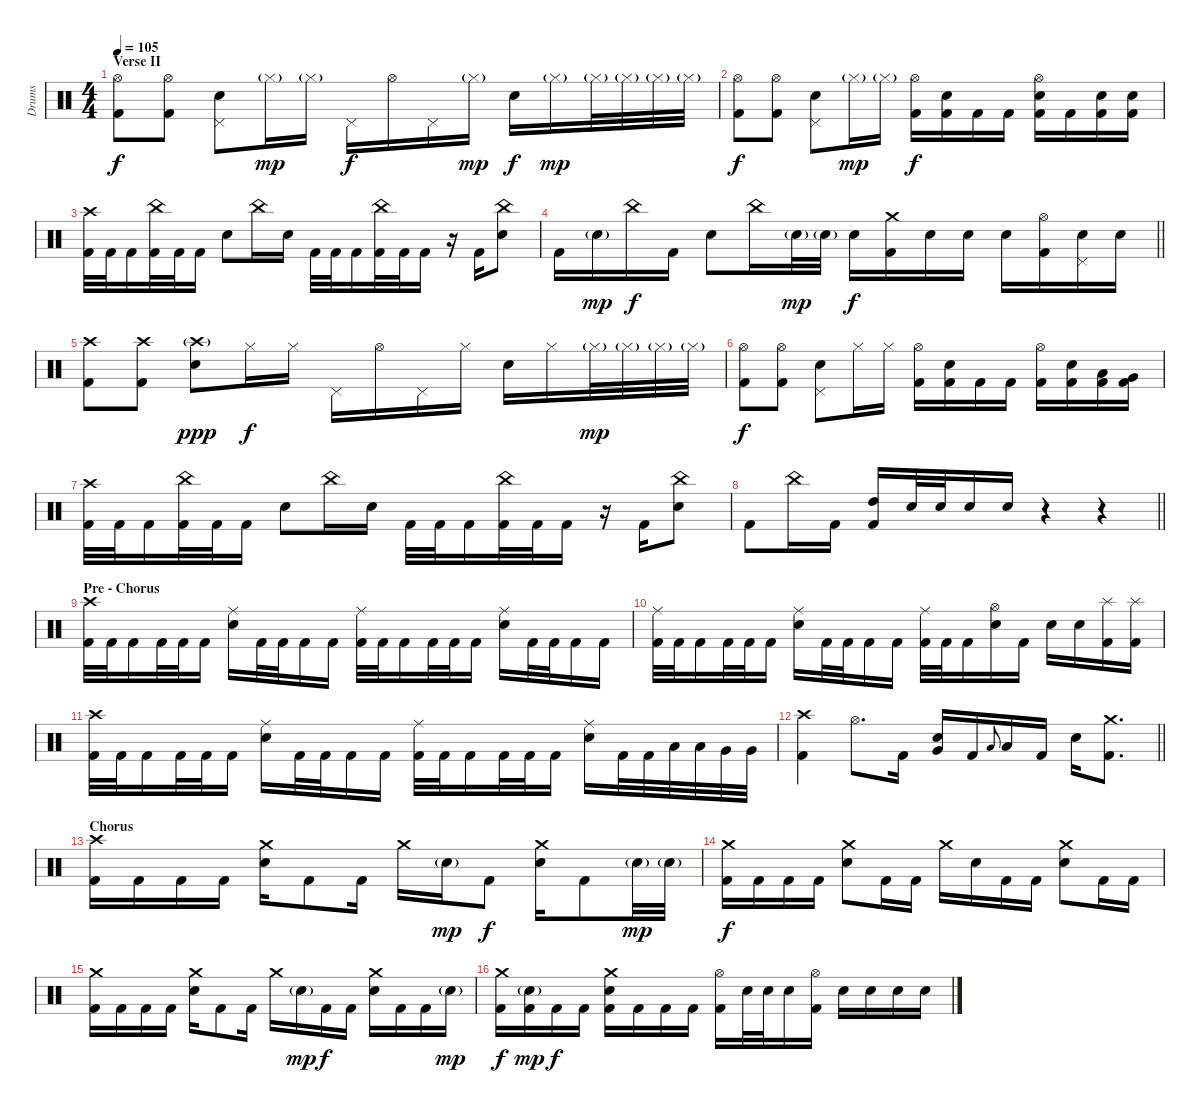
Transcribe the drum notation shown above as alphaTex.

\track ("Drums" "Drums") {instrument percussion}
\staff {score}
\articulation defaults
\ts (4 4)
\section ("" "Verse II")
\tempo 105
\clef neutral
\ks c
("Hi-Hat (open)" "Kick (hit) 2").8{dy f} ("Hi-Hat (open)" "Kick (hit) 2").8 ("Pedal Hi-Hat (hit)" "Electric Snare (hit)").8 "Hi-Hat (closed)"{g}.16{dy mp} "Hi-Hat (closed)"{g}.16 "Pedal Hi-Hat (hit)".16{dy f} "Hi-Hat (open)".16 "Pedal Hi-Hat (hit)".16 "Hi-Hat (closed)"{g}.16{dy mp} "Electric Snare (hit)".16{dy f} "Hi-Hat (closed)"{g}.16{dy mp} "Hi-Hat (closed)"{g}.32 "Hi-Hat (closed)"{g}.32 "Hi-Hat (closed)"{g}.32 "Hi-Hat (closed)"{g}.32 |
("Hi-Hat (open)" "Kick (hit) 2").8{dy f} ("Hi-Hat (open)" "Kick (hit) 2").8 ("Pedal Hi-Hat (hit)" "Electric Snare (hit)").8 "Hi-Hat (closed)"{g}.16{dy mp} "Hi-Hat (closed)"{g}.16 ("Hi-Hat (open)" "Kick (hit) 2").16{dy f} ("Electric Snare (hit)" "Kick (hit) 2").16 "Kick (hit) 2".16 "Kick (hit) 2".16 ("Hi-Hat (open)" "Electric Snare (hit)" "Kick (hit) 2").16 "Kick (hit) 2".16 ("Electric Snare (hit)" "Kick (hit) 2").16 ("Electric Snare (hit)" "Kick (hit) 2").16 |
("Crash high (hit)" "Kick (hit) 2").32 "Kick (hit) 2".32 "Kick (hit) 2".16 ("China (hit)" "Kick (hit) 2").32 "Kick (hit) 2".32 "Kick (hit) 2".16 "Electric Snare (hit)".8 "China (hit)".16 "Electric Snare (hit)".16 "Kick (hit) 2".32 "Kick (hit) 2".32 "Kick (hit) 2".16 ("China (hit)" "Kick (hit) 2").32 "Kick (hit) 2".32 "Kick (hit) 2".16 r.16 "Kick (hit) 2".16 ("China (hit)" "Electric Snare (hit)").8 |
\barLineRight lightlight "Kick (hit) 2".16 "Electric Snare (hit)"{g}.16{dy mp} "China (hit)".16{dy f} "Kick (hit) 2".16 "Electric Snare (hit)".8 "China (hit)".16 "Electric Snare (hit)"{g}.32{dy mp} "Electric Snare (hit)"{g}.32 "Electric Snare (hit)".16{dy f}
("Crash medium (hit)" "Kick (hit) 2").16 "Electric Snare (hit)".16 "Electric Snare (hit)".16 "Electric Snare (hit)".16 ("Hi-Hat (open)" "Kick (hit) 2").16 ("Pedal Hi-Hat (hit)" "Electric Snare (hit)").16 "Electric Snare (hit)".16 |
("Crash high (hit)" "Kick (hit) 2").8 ("Crash high (hit)" "Kick (hit) 2").8 ("Crash high (hit)"{g} "Electric Snare (hit)").8{dy ppp} "Hi-Hat (closed)".16{dy f} "Hi-Hat (closed)".16 "Pedal Hi-Hat (hit)".16 "Hi-Hat (open)".16 "Pedal Hi-Hat (hit)".16 "Hi-Hat (closed)".16 "Electric Snare (hit)".16 "Hi-Hat (closed)".16 "Hi-Hat (closed)"{g}.32{dy mp} "Hi-Hat (closed)"{g}.32 "Hi-Hat (closed)"{g}.32 "Hi-Hat (closed)"{g}.32 |
("Hi-Hat (open)" "Kick (hit) 2").8{dy f} ("Hi-Hat (open)" "Kick (hit) 2").8 ("Pedal Hi-Hat (hit)" "Electric Snare (hit)").8 "Hi-Hat (closed)".16 "Hi-Hat (closed)".16 ("Hi-Hat (open)" "Kick (hit) 2").16 ("Electric Snare (hit)" "Kick (hit) 2").16 "Kick (hit) 2".16 "Kick (hit) 2".16 ("Hi-Hat (open)" "Kick (hit) 2").16 ("Electric Snare (hit)" "Kick (hit) 2").16 ("Low Tom (hit)" "Kick (hit) 2").16 ("Very Low Tom (hit)" "Kick (hit) 2").16 |
("Crash high (hit)" "Kick (hit) 2").32 "Kick (hit) 2".32 "Kick (hit) 2".16 ("China (hit)" "Kick (hit) 2").32 "Kick (hit) 2".32 "Kick (hit) 2".16 "Electric Snare (hit)".8 "China (hit)".16 "Electric Snare (hit)".16 "Kick (hit) 2".32 "Kick (hit) 2".32 "Kick (hit) 2".16 ("China (hit)" "Kick (hit) 2").32 "Kick (hit) 2".32 "Kick (hit) 2".16 r.16 "Kick (hit) 2".16 ("China (hit)" "Electric Snare (hit)").8 |
\barLineRight lightlight "Kick (hit) 2".8 "China (hit)".16 "Kick (hit) 2".16
("High Tom (hit)" "Kick (hit) 2").16 "Electric Snare (hit)".32 "Electric Snare (hit)".32 "Electric Snare (hit)".16 "Electric Snare (hit)".16 r.4 r.4 |
\section ("" "Pre - Chorus")
("Crash high (hit)" "Kick (hit) 2").32 "Kick (hit) 2".32 "Kick (hit) 2".16 "Kick (hit) 2".32 "Kick (hit) 2".32 "Kick (hit) 2".16 ("Ride (middle)" "Electric Snare (hit)").16 "Kick (hit) 2".32 "Kick (hit) 2".32 "Kick (hit) 2".16 "Kick (hit) 2".16 ("Ride (middle)" "Kick (hit) 2").32 "Kick (hit) 2".32 "Kick (hit) 2".16 "Kick (hit) 2".32 "Kick (hit) 2".32 "Kick (hit) 2".16 ("Ride (middle)" "Electric Snare (hit)").16 "Kick (hit) 2".32 "Kick (hit) 2".32 "Kick (hit) 2".16 "Kick (hit) 2".16 |
("Ride (middle)" "Kick (hit) 2").32 "Kick (hit) 2".32 "Kick (hit) 2".16 "Kick (hit) 2".32 "Kick (hit) 2".32 "Kick (hit) 2".16 ("Ride (middle)" "Electric Snare (hit)").16 "Kick (hit) 2".32 "Kick (hit) 2".32 "Kick (hit) 2".16 "Kick (hit) 2".16 ("Ride (middle)" "Kick (hit) 2").32 "Kick (hit) 2".32 "Kick (hit) 2".16 ("Hi-Hat (open)" "Electric Snare (hit)").16 "Kick (hit) 2".16 "Electric Snare (hit)".16 "Electric Snare (hit)".16 ("Splash (hit)" "Kick (hit) 2").16 ("Splash (hit)" "Kick (hit) 2").16 |
("Crash high (hit)" "Kick (hit) 2").32 "Kick (hit) 2".32 "Kick (hit) 2".16 "Kick (hit) 2".32 "Kick (hit) 2".32 "Kick (hit) 2".16 ("Ride (middle)" "Electric Snare (hit)").16 "Kick (hit) 2".32 "Kick (hit) 2".32 "Kick (hit) 2".16 "Kick (hit) 2".16 ("Ride (middle)" "Kick (hit) 2").32 "Kick (hit) 2".32 "Kick (hit) 2".16 "Kick (hit) 2".32 "Kick (hit) 2".32 "Kick (hit) 2".16 ("Ride (middle)" "Electric Snare (hit)").16 "Kick (hit) 2".32 "Kick (hit) 2".32 "Low Tom (hit)".32 "Low Tom (hit)".32 "Very Low Tom (hit)".32 "Very Low Tom (hit)".32 |
\barLineRight lightlight
("Crash high (hit)" "Kick (hit) 2").4 "Hi-Hat (open)".8{d} "Kick (hit) 2".16 ("Very Low Tom (hit)" "Electric Snare (hit)").16 "Kick (hit) 2".16 "Low Tom (hit)".8{gr onbeat} "Low Tom (hit)".16 "Kick (hit) 2".16 "Electric Snare (hit)".16 ("Crash medium (hit)" "Kick (hit) 2").8{d} |
\section ("" "Chorus")
("Crash high (hit)" "Kick (hit) 2").16 "Kick (hit) 2".16 "Kick (hit) 2".16 "Kick (hit) 2".16 ("Crash medium (hit)" "Electric Snare (hit)").16 "Kick (hit) 2".8 "Kick (hit) 2".16 "Crash medium (hit)".16 "Electric Snare (hit)"{g}.16{dy mp} "Kick (hit) 2".8{dy f} ("Crash medium (hit)" "Electric Snare (hit)").16 "Kick (hit) 2".8 "Electric Snare (hit)"{g}.32{dy mp} "Electric Snare (hit)"{g}.32 |
("Crash medium (hit)" "Kick (hit) 2").16{dy f} "Kick (hit) 2".16 "Kick (hit) 2".16 "Kick (hit) 2".16 ("Crash medium (hit)" "Electric Snare (hit)").8 "Kick (hit) 2".16 "Kick (hit) 2".16 "Crash medium (hit)".16 "Electric Snare (hit)".16 "Kick (hit) 2".16 "Kick (hit) 2".16 ("Crash medium (hit)" "Electric Snare (hit)").8 "Kick (hit) 2".16 "Kick (hit) 2".16 |
("Crash medium (hit)" "Kick (hit) 2").16 "Kick (hit) 2".16 "Kick (hit) 2".16 "Kick (hit) 2".16 ("Crash medium (hit)" "Electric Snare (hit)").16 "Kick (hit) 2".8 "Kick (hit) 2".16 "Crash medium (hit)".16 "Electric Snare (hit)"{g}.16{dy mp} "Kick (hit) 2".16{dy f} "Kick (hit) 2".16 ("Crash medium (hit)" "Electric Snare (hit)").16 "Kick (hit) 2".16 "Kick (hit) 2".16 "Electric Snare (hit)"{g}.16{dy mp} |
("Crash medium (hit)" "Kick (hit) 2").16{dy f} ("Electric Snare (hit)"{g} "Kick (hit) 2").16{dy mp} "Kick (hit) 2".16{dy f} "Kick (hit) 2".16 ("Crash medium (hit)" "Electric Snare (hit)" "Kick (hit) 2").16 "Kick (hit) 2".16 "Kick (hit) 2".16 "Kick (hit) 2".16 ("Hi-Hat (open)" "Kick (hit) 2").16 "Electric Snare (hit)".32 "Electric Snare (hit)".32 "Electric Snare (hit)".16 ("Hi-Hat (open)" "Kick (hit) 2").16 "Electric Snare (hit)".16 "Electric Snare (hit)".16 "Electric Snare (hit)".16 "Electric Snare (hit)".16
